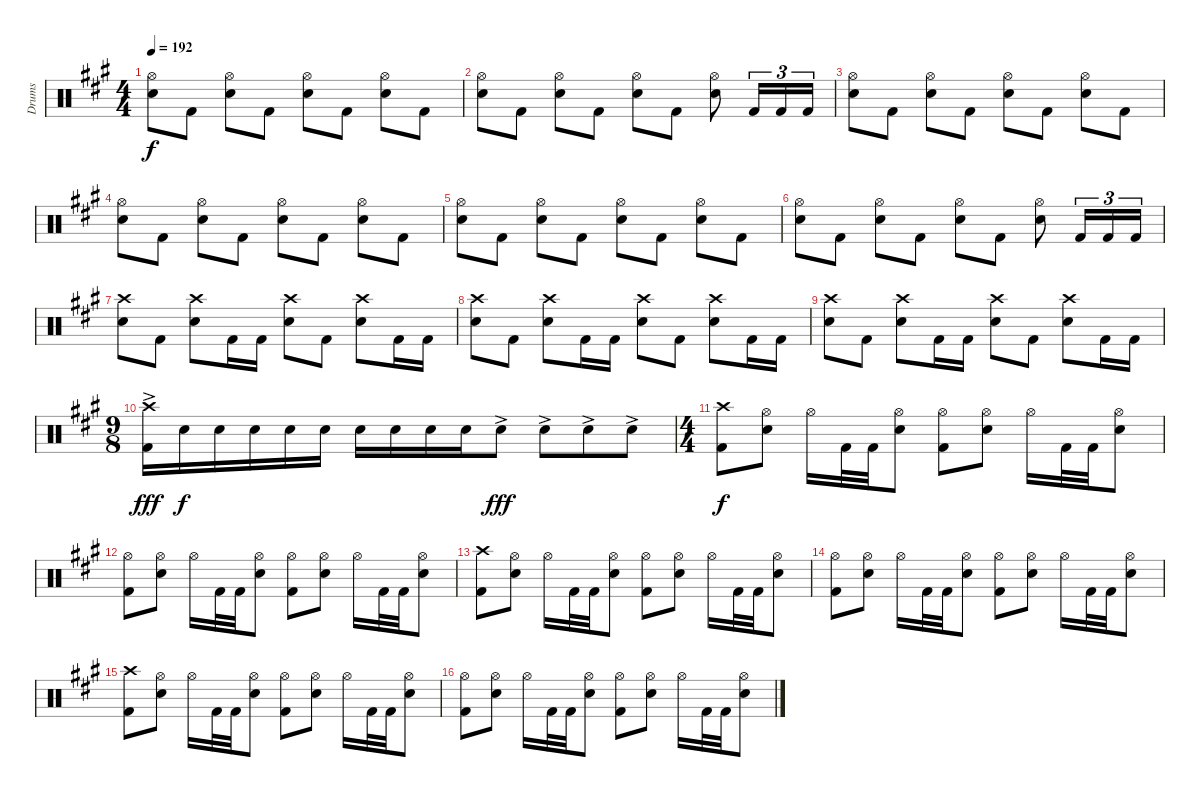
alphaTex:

\track ("Drums" "Drums") {instrument percussion}
\staff {score}
\articulation defaults
\ts (4 4)
\tempo 192
\clef neutral
\ks f#minor
("Hi-Hat (open)" "Snare (hit) 2").8{dy f} "Kick (hit) 2".8 ("Hi-Hat (open)" "Snare (hit) 2").8 "Kick (hit) 2".8 ("Hi-Hat (open)" "Snare (hit) 2").8 "Kick (hit) 2".8 ("Hi-Hat (open)" "Snare (hit) 2").8 "Kick (hit) 2".8 |
("Hi-Hat (open)" "Snare (hit) 2").8 "Kick (hit) 2".8 ("Hi-Hat (open)" "Snare (hit) 2").8 "Kick (hit) 2".8 ("Hi-Hat (open)" "Snare (hit) 2").8 "Kick (hit) 2".8 ("Hi-Hat (open)" "Snare (hit) 2").8 "Kick (hit) 2".16{tu (3 2)} "Kick (hit) 2".16{tu (3 2)} "Kick (hit) 2".16{tu (3 2)} |
("Hi-Hat (open)" "Snare (hit) 2").8 "Kick (hit) 2".8 ("Hi-Hat (open)" "Snare (hit) 2").8 "Kick (hit) 2".8 ("Hi-Hat (open)" "Snare (hit) 2").8 "Kick (hit) 2".8 ("Hi-Hat (open)" "Snare (hit) 2").8 "Kick (hit) 2".8 |
("Hi-Hat (open)" "Snare (hit) 2").8 "Kick (hit) 2".8 ("Hi-Hat (open)" "Snare (hit) 2").8 "Kick (hit) 2".8 ("Hi-Hat (open)" "Snare (hit) 2").8 "Kick (hit) 2".8 ("Hi-Hat (open)" "Snare (hit) 2").8 "Kick (hit) 2".8 |
("Hi-Hat (open)" "Snare (hit) 2").8 "Kick (hit) 2".8 ("Hi-Hat (open)" "Snare (hit) 2").8 "Kick (hit) 2".8 ("Hi-Hat (open)" "Snare (hit) 2").8 "Kick (hit) 2".8 ("Hi-Hat (open)" "Snare (hit) 2").8 "Kick (hit) 2".8 |
("Hi-Hat (open)" "Snare (hit) 2").8 "Kick (hit) 2".8 ("Hi-Hat (open)" "Snare (hit) 2").8 "Kick (hit) 2".8 ("Hi-Hat (open)" "Snare (hit) 2").8 "Kick (hit) 2".8 ("Hi-Hat (open)" "Snare (hit) 2").8 "Kick (hit) 2".16{tu (3 2)} "Kick (hit) 2".16{tu (3 2)} "Kick (hit) 2".16{tu (3 2)} |
("Crash high (hit)" "Snare (hit) 2").8 "Kick (hit) 2".8 ("Crash high (hit)" "Snare (hit) 2").8 "Kick (hit) 2".16 "Kick (hit) 2".16 ("Crash high (hit)" "Snare (hit) 2").8 "Kick (hit) 2".8 ("Crash high (hit)" "Snare (hit) 2").8 "Kick (hit) 2".16 "Kick (hit) 2".16 |
("Crash high (hit)" "Snare (hit) 2").8 "Kick (hit) 2".8 ("Crash high (hit)" "Snare (hit) 2").8 "Kick (hit) 2".16 "Kick (hit) 2".16 ("Crash high (hit)" "Snare (hit) 2").8 "Kick (hit) 2".8 ("Crash high (hit)" "Snare (hit) 2").8 "Kick (hit) 2".16 "Kick (hit) 2".16 |
("Crash high (hit)" "Snare (hit) 2").8 "Kick (hit) 2".8 ("Crash high (hit)" "Snare (hit) 2").8 "Kick (hit) 2".16 "Kick (hit) 2".16 ("Crash high (hit)" "Snare (hit) 2").8 "Kick (hit) 2".8 ("Crash high (hit)" "Snare (hit) 2").8 "Kick (hit) 2".16 "Kick (hit) 2".16 |
\ts (9 8)
("Crash high (hit)"{ac} "Kick (hit) 2"{ac}).16{dy fff} "Snare (hit) 2".16{dy f} "Snare (hit) 2".16 "Snare (hit) 2".16 "Snare (hit) 2".16 "Snare (hit) 2".16 "Snare (hit) 2".16 "Snare (hit) 2".16 "Snare (hit) 2".16 "Snare (hit) 2".16 "Snare (hit) 2"{ac}.8{dy fff} "Snare (hit) 2"{ac}.8 "Snare (hit) 2"{ac}.8 "Snare (hit) 2"{ac}.8 |
\ts (4 4)
("Crash high (hit)" "Kick (hit) 2").8{dy f} ("Hi-Hat (open)" "Snare (hit) 2").8 "Hi-Hat (open)".16 "Kick (hit) 2".32 "Kick (hit) 2".32 ("Hi-Hat (open)" "Snare (hit) 2").8 ("Hi-Hat (open)" "Kick (hit) 2").8 ("Hi-Hat (open)" "Snare (hit) 2").8 "Hi-Hat (open)".16 "Kick (hit) 2".32 "Kick (hit) 2".32 ("Hi-Hat (open)" "Snare (hit) 2").8 |
("Hi-Hat (open)" "Kick (hit) 2").8 ("Hi-Hat (open)" "Snare (hit) 2").8 "Hi-Hat (open)".16 "Kick (hit) 2".32 "Kick (hit) 2".32 ("Hi-Hat (open)" "Snare (hit) 2").8 ("Hi-Hat (open)" "Kick (hit) 2").8 ("Hi-Hat (open)" "Snare (hit) 2").8 "Hi-Hat (open)".16 "Kick (hit) 2".32 "Kick (hit) 2".32 ("Hi-Hat (open)" "Snare (hit) 2").8 |
("Crash high (hit)" "Kick (hit) 2").8 ("Hi-Hat (open)" "Snare (hit) 2").8 "Hi-Hat (open)".16 "Kick (hit) 2".32 "Kick (hit) 2".32 ("Hi-Hat (open)" "Snare (hit) 2").8 ("Hi-Hat (open)" "Kick (hit) 2").8 ("Hi-Hat (open)" "Snare (hit) 2").8 "Hi-Hat (open)".16 "Kick (hit) 2".32 "Kick (hit) 2".32 ("Hi-Hat (open)" "Snare (hit) 2").8 |
("Hi-Hat (open)" "Kick (hit) 2").8 ("Hi-Hat (open)" "Snare (hit) 2").8 "Hi-Hat (open)".16 "Kick (hit) 2".32 "Kick (hit) 2".32 ("Hi-Hat (open)" "Snare (hit) 2").8 ("Hi-Hat (open)" "Kick (hit) 2").8 ("Hi-Hat (open)" "Snare (hit) 2").8 "Hi-Hat (open)".16 "Kick (hit) 2".32 "Kick (hit) 2".32 ("Hi-Hat (open)" "Snare (hit) 2").8 |
("Crash high (hit)" "Kick (hit) 2").8 ("Hi-Hat (open)" "Snare (hit) 2").8 "Hi-Hat (open)".16 "Kick (hit) 2".32 "Kick (hit) 2".32 ("Hi-Hat (open)" "Snare (hit) 2").8 ("Hi-Hat (open)" "Kick (hit) 2").8 ("Hi-Hat (open)" "Snare (hit) 2").8 "Hi-Hat (open)".16 "Kick (hit) 2".32 "Kick (hit) 2".32 ("Hi-Hat (open)" "Snare (hit) 2").8 |
("Hi-Hat (open)" "Kick (hit) 2").8 ("Hi-Hat (open)" "Snare (hit) 2").8 "Hi-Hat (open)".16 "Kick (hit) 2".32 "Kick (hit) 2".32 ("Hi-Hat (open)" "Snare (hit) 2").8 ("Hi-Hat (open)" "Kick (hit) 2").8 ("Hi-Hat (open)" "Snare (hit) 2").8 "Hi-Hat (open)".16 "Kick (hit) 2".32 "Kick (hit) 2".32 ("Hi-Hat (open)" "Snare (hit) 2").8
